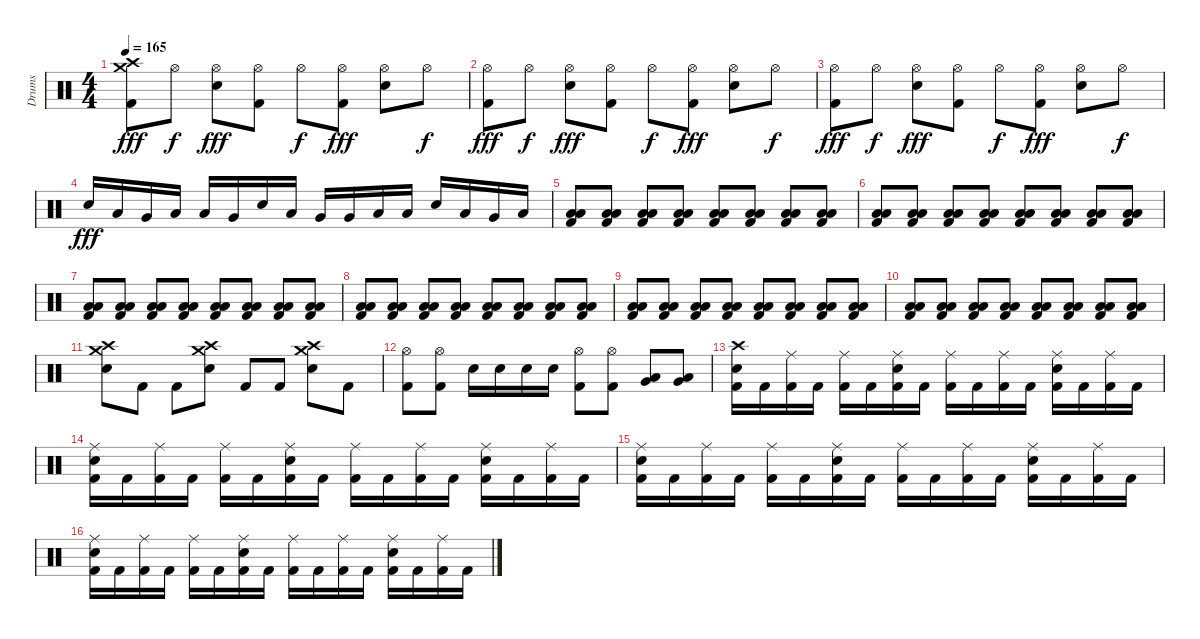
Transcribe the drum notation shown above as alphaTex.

\track ("Drums" "Drums") {instrument percussion}
\staff {score}
\articulation defaults
\ts (4 4)
\tempo 165
\clef neutral
\ks c
("Kick (hit) 2" "Crash medium (hit)" "Crash high (hit)").8{dy fff} "Hi-Hat (open)".8{dy f} ("Electric Snare (hit)" "Hi-Hat (open)").8{dy fff} ("Kick (hit) 2" "Hi-Hat (open)").8 "Hi-Hat (open)".8{dy f} ("Kick (hit) 2" "Hi-Hat (open)").8{dy fff} ("Electric Snare (hit)" "Hi-Hat (open)").8 "Hi-Hat (open)".8{dy f} |
("Kick (hit) 2" "Hi-Hat (open)").8{dy fff} "Hi-Hat (open)".8{dy f} ("Electric Snare (hit)" "Hi-Hat (open)").8{dy fff} ("Kick (hit) 2" "Hi-Hat (open)").8 "Hi-Hat (open)".8{dy f} ("Kick (hit) 2" "Hi-Hat (open)").8{dy fff} ("Electric Snare (hit)" "Hi-Hat (open)").8 "Hi-Hat (open)".8{dy f} |
("Kick (hit) 2" "Hi-Hat (open)").8{dy fff} "Hi-Hat (open)".8{dy f} ("Electric Snare (hit)" "Hi-Hat (open)").8{dy fff} ("Kick (hit) 2" "Hi-Hat (open)").8 "Hi-Hat (open)".8{dy f} ("Kick (hit) 2" "Hi-Hat (open)").8{dy fff} ("Electric Snare (hit)" "Hi-Hat (open)").8 "Hi-Hat (open)".8{dy f} |
"Electric Snare (hit)".16{dy fff} "Low Tom (hit)".16 "Very Low Tom (hit)".16 "Low Tom (hit)".16 "Low Tom (hit)".16 "Very Low Tom (hit)".16 "Electric Snare (hit)".16 "Low Tom (hit)".16 "Very Low Tom (hit)".16 "Very Low Tom (hit)".16 "Low Tom (hit)".16 "Low Tom (hit)".16 "Electric Snare (hit)".16 "Low Tom (hit)".16 "Very Low Tom (hit)".16 "Low Tom (hit)".16 |
("Kick (hit) 2" "Low Tom (hit)" "Low Floor Tom (hit)").8{volume 4} ("Kick (hit) 2" "Low Tom (hit)" "Low Floor Tom (hit)").8 ("Kick (hit) 2" "Low Tom (hit)" "Low Floor Tom (hit)").8 ("Kick (hit) 2" "Low Tom (hit)" "Low Floor Tom (hit)").8{volume 5} ("Kick (hit) 2" "Low Tom (hit)" "Low Floor Tom (hit)").8 ("Kick (hit) 2" "Low Tom (hit)" "Low Floor Tom (hit)").8 ("Kick (hit) 2" "Low Tom (hit)" "Low Floor Tom (hit)").8{volume 5} ("Kick (hit) 2" "Low Tom (hit)" "Low Floor Tom (hit)").8 |
("Kick (hit) 2" "Low Tom (hit)" "Low Floor Tom (hit)").8 ("Kick (hit) 2" "Low Tom (hit)" "Low Floor Tom (hit)").8{volume 5} ("Kick (hit) 2" "Low Tom (hit)" "Low Floor Tom (hit)").8 ("Kick (hit) 2" "Low Tom (hit)" "Low Floor Tom (hit)").8 ("Kick (hit) 2" "Low Tom (hit)" "Low Floor Tom (hit)").8{volume 6} ("Kick (hit) 2" "Low Tom (hit)" "Low Floor Tom (hit)").8 ("Kick (hit) 2" "Low Tom (hit)" "Low Floor Tom (hit)").8 ("Kick (hit) 2" "Low Tom (hit)" "Low Floor Tom (hit)").8{volume 7} |
("Kick (hit) 2" "Low Tom (hit)" "Low Floor Tom (hit)").8 ("Kick (hit) 2" "Low Tom (hit)" "Low Floor Tom (hit)").8 ("Kick (hit) 2" "Low Tom (hit)" "Low Floor Tom (hit)").8{volume 8} ("Kick (hit) 2" "Low Tom (hit)" "Low Floor Tom (hit)").8 ("Kick (hit) 2" "Low Tom (hit)" "Low Floor Tom (hit)").8 ("Kick (hit) 2" "Low Tom (hit)" "Low Floor Tom (hit)").8{volume 9} ("Kick (hit) 2" "Low Tom (hit)" "Low Floor Tom (hit)").8 ("Kick (hit) 2" "Low Tom (hit)" "Low Floor Tom (hit)").8 |
("Kick (hit) 2" "Low Tom (hit)" "Low Floor Tom (hit)").8{volume 10} ("Kick (hit) 2" "Low Tom (hit)" "Low Floor Tom (hit)").8 ("Kick (hit) 2" "Low Tom (hit)" "Low Floor Tom (hit)").8 ("Kick (hit) 2" "Low Tom (hit)" "Low Floor Tom (hit)").8{volume 11} ("Kick (hit) 2" "Low Tom (hit)" "Low Floor Tom (hit)").8 ("Kick (hit) 2" "Low Tom (hit)" "Low Floor Tom (hit)").8 ("Kick (hit) 2" "Low Tom (hit)" "Low Floor Tom (hit)").8{volume 12} ("Kick (hit) 2" "Low Tom (hit)" "Low Floor Tom (hit)").8 |
("Kick (hit) 2" "Low Tom (hit)" "Low Floor Tom (hit)").8 ("Kick (hit) 2" "Low Tom (hit)" "Low Floor Tom (hit)").8{volume 13} ("Kick (hit) 2" "Low Tom (hit)" "Low Floor Tom (hit)").8 ("Kick (hit) 2" "Low Tom (hit)" "Low Floor Tom (hit)").8 ("Kick (hit) 2" "Low Tom (hit)" "Low Floor Tom (hit)").8{volume 14} ("Kick (hit) 2" "Low Tom (hit)" "Low Floor Tom (hit)").8 ("Kick (hit) 2" "Low Tom (hit)" "Low Floor Tom (hit)").8 ("Kick (hit) 2" "Low Tom (hit)" "Low Floor Tom (hit)").8{volume 15} |
("Kick (hit) 2" "Low Tom (hit)" "Low Floor Tom (hit)").8 ("Kick (hit) 2" "Low Tom (hit)" "Low Floor Tom (hit)").8 ("Kick (hit) 2" "Low Tom (hit)" "Low Floor Tom (hit)").8 ("Kick (hit) 2" "Low Tom (hit)" "Low Floor Tom (hit)").8 ("Kick (hit) 2" "Low Tom (hit)" "Low Floor Tom (hit)").8 ("Kick (hit) 2" "Low Tom (hit)" "Low Floor Tom (hit)").8 ("Kick (hit) 2" "Low Tom (hit)" "Low Floor Tom (hit)").8 ("Kick (hit) 2" "Low Tom (hit)" "Low Floor Tom (hit)").8 |
("Electric Snare (hit)" "Crash medium (hit)" "Crash high (hit)").8 "Kick (hit) 2".8 "Kick (hit) 2".8 ("Electric Snare (hit)" "Crash medium (hit)" "Crash high (hit)").8 "Kick (hit) 2".8 "Kick (hit) 2".8 ("Electric Snare (hit)" "Crash medium (hit)" "Crash high (hit)").8 "Kick (hit) 2".8 |
("Kick (hit) 2" "Hi-Hat (open)").8 ("Kick (hit) 2" "Hi-Hat (open)").8 "Electric Snare (hit)".16 "Electric Snare (hit)".16 "Electric Snare (hit)".16 "Electric Snare (hit)".16 ("Kick (hit) 2" "Hi-Hat (open)").8 ("Kick (hit) 2" "Hi-Hat (open)").8 ("Low Tom (hit)" "Very Low Tom (hit)").8 ("Low Tom (hit)" "Very Low Tom (hit)").8 |
("Kick (hit) 2" "Electric Snare (hit)" "Crash high (hit)").16 "Kick (hit) 2".16 ("Kick (hit) 2" "Ride (middle)").16 "Kick (hit) 2".16 ("Kick (hit) 2" "Ride (middle)").16 "Kick (hit) 2".16 ("Kick (hit) 2" "Electric Snare (hit)" "Ride (middle)").16 "Kick (hit) 2".16 ("Kick (hit) 2" "Ride (middle)").16 "Kick (hit) 2".16 ("Kick (hit) 2" "Ride (middle)").16 "Kick (hit) 2".16 ("Kick (hit) 2" "Electric Snare (hit)" "Ride (middle)").16 "Kick (hit) 2".16 ("Kick (hit) 2" "Ride (middle)").16 "Kick (hit) 2".16 |
("Kick (hit) 2" "Electric Snare (hit)" "Ride (middle)").16 "Kick (hit) 2".16 ("Kick (hit) 2" "Ride (middle)").16 "Kick (hit) 2".16 ("Kick (hit) 2" "Ride (middle)").16 "Kick (hit) 2".16 ("Kick (hit) 2" "Electric Snare (hit)" "Ride (middle)").16 "Kick (hit) 2".16 ("Kick (hit) 2" "Ride (middle)").16 "Kick (hit) 2".16 ("Kick (hit) 2" "Ride (middle)").16 "Kick (hit) 2".16 ("Kick (hit) 2" "Electric Snare (hit)" "Ride (middle)").16 "Kick (hit) 2".16 ("Kick (hit) 2" "Ride (middle)").16 "Kick (hit) 2".16 |
("Kick (hit) 2" "Electric Snare (hit)" "Ride (middle)").16 "Kick (hit) 2".16 ("Kick (hit) 2" "Ride (middle)").16 "Kick (hit) 2".16 ("Kick (hit) 2" "Ride (middle)").16 "Kick (hit) 2".16 ("Kick (hit) 2" "Electric Snare (hit)" "Ride (middle)").16 "Kick (hit) 2".16 ("Kick (hit) 2" "Ride (middle)").16 "Kick (hit) 2".16 ("Kick (hit) 2" "Ride (middle)").16 "Kick (hit) 2".16 ("Kick (hit) 2" "Electric Snare (hit)" "Ride (middle)").16 "Kick (hit) 2".16 ("Kick (hit) 2" "Ride (middle)").16 "Kick (hit) 2".16 |
("Kick (hit) 2" "Electric Snare (hit)" "Ride (middle)").16 "Kick (hit) 2".16 ("Kick (hit) 2" "Ride (middle)").16 "Kick (hit) 2".16 ("Kick (hit) 2" "Ride (middle)").16 "Kick (hit) 2".16 ("Kick (hit) 2" "Electric Snare (hit)" "Ride (middle)").16 "Kick (hit) 2".16 ("Kick (hit) 2" "Ride (middle)").16 "Kick (hit) 2".16 ("Kick (hit) 2" "Ride (middle)").16 "Kick (hit) 2".16 ("Kick (hit) 2" "Electric Snare (hit)" "Ride (middle)").16 "Kick (hit) 2".16 ("Kick (hit) 2" "Ride (middle)").16 "Kick (hit) 2".16
